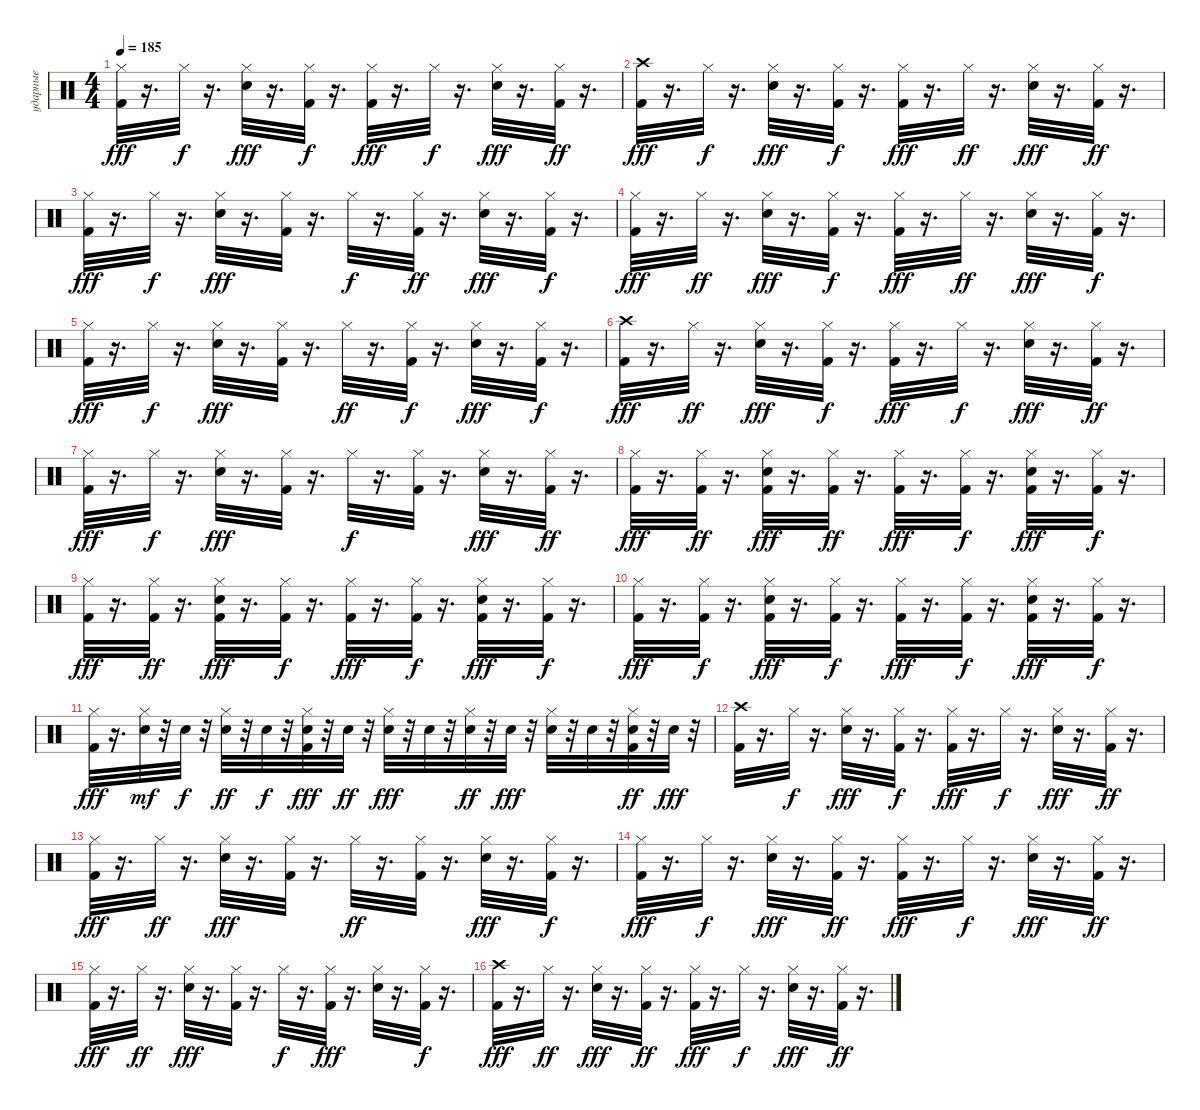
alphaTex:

\track ("ударные" "ударные") {instrument percussion}
\staff {score}
\articulation defaults
\ts (4 4)
\tempo 185
\clef neutral
\ks c
("Hi-Hat (closed)" "Kick (hit) 2").32{dy fff} r.16{d} "Hi-Hat (closed)".32{dy f} r.16{d} ("Hi-Hat (closed)" "Electric Snare (hit)").32{dy fff} r.16{d} ("Hi-Hat (closed)" "Kick (hit) 2").32{dy f} r.16{d} ("Hi-Hat (closed)" "Kick (hit) 2").32{dy fff} r.16{d} "Hi-Hat (closed)".32{dy f} r.16{d} ("Hi-Hat (closed)" "Electric Snare (hit)").32{dy fff} r.16{d} ("Hi-Hat (closed)" "Kick (hit) 2").32{dy ff} r.16{d} |
("Crash high (hit)" "Kick (hit) 2").32{dy fff} r.16{d} "Hi-Hat (closed)".32{dy f} r.16{d} ("Hi-Hat (closed)" "Electric Snare (hit)").32{dy fff} r.16{d} ("Hi-Hat (closed)" "Kick (hit) 2").32{dy f} r.16{d} ("Hi-Hat (closed)" "Kick (hit) 2").32{dy fff} r.16{d} "Hi-Hat (closed)".32{dy ff} r.16{d} ("Hi-Hat (closed)" "Electric Snare (hit)").32{dy fff} r.16{d} ("Hi-Hat (closed)" "Kick (hit) 2").32{dy ff} r.16{d} |
("Hi-Hat (closed)" "Kick (hit) 2").32{dy fff} r.16{d} "Hi-Hat (closed)".32{dy f} r.16{d} ("Hi-Hat (closed)" "Electric Snare (hit)").32{dy fff} r.16{d} ("Hi-Hat (closed)" "Kick (hit) 2").32 r.16{d} "Hi-Hat (closed)".32{dy f} r.16{d} ("Kick (hit) 2" "Hi-Hat (closed)").32{dy ff} r.16{d} ("Hi-Hat (closed)" "Electric Snare (hit)").32{dy fff} r.16{d} ("Hi-Hat (closed)" "Kick (hit) 2").32{dy f} r.16{d} |
("Hi-Hat (closed)" "Kick (hit) 2").32{dy fff} r.16{d} "Hi-Hat (closed)".32{dy ff} r.16{d} ("Hi-Hat (closed)" "Electric Snare (hit)").32{dy fff} r.16{d} ("Hi-Hat (closed)" "Kick (hit) 2").32{dy f} r.16{d} ("Hi-Hat (closed)" "Kick (hit) 2").32{dy fff} r.16{d} "Hi-Hat (closed)".32{dy ff} r.16{d} ("Hi-Hat (closed)" "Electric Snare (hit)").32{dy fff} r.16{d} ("Hi-Hat (closed)" "Kick (hit) 2").32{dy f} r.16{d} |
("Hi-Hat (closed)" "Kick (hit) 2").32{dy fff} r.16{d} "Hi-Hat (closed)".32{dy f} r.16{d} ("Hi-Hat (closed)" "Electric Snare (hit)").32{dy fff} r.16{d} ("Hi-Hat (closed)" "Kick (hit) 2").32 r.16{d} "Hi-Hat (closed)".32{dy ff} r.16{d} ("Kick (hit) 2" "Hi-Hat (closed)").32{dy f} r.16{d} ("Hi-Hat (closed)" "Electric Snare (hit)").32{dy fff} r.16{d} ("Hi-Hat (closed)" "Kick (hit) 2").32{dy f} r.16{d} |
("Crash high (hit)" "Kick (hit) 2").32{dy fff} r.16{d} "Hi-Hat (closed)".32{dy ff} r.16{d} ("Hi-Hat (closed)" "Electric Snare (hit)").32{dy fff} r.16{d} ("Hi-Hat (closed)" "Kick (hit) 2").32{dy f} r.16{d} ("Hi-Hat (closed)" "Kick (hit) 2").32{dy fff} r.16{d} "Hi-Hat (closed)".32{dy f} r.16{d} ("Hi-Hat (closed)" "Electric Snare (hit)").32{dy fff} r.16{d} ("Hi-Hat (closed)" "Kick (hit) 2").32{dy ff} r.16{d} |
("Hi-Hat (closed)" "Kick (hit) 2").32{dy fff} r.16{d} "Hi-Hat (closed)".32{dy f} r.16{d} ("Hi-Hat (closed)" "Electric Snare (hit)").32{dy fff} r.16{d} ("Hi-Hat (closed)" "Kick (hit) 2").32 r.16{d} "Hi-Hat (closed)".32{dy f} r.16{d} ("Kick (hit) 2" "Hi-Hat (closed)").32 r.16{d} ("Hi-Hat (closed)" "Electric Snare (hit)").32{dy fff} r.16{d} ("Hi-Hat (closed)" "Kick (hit) 2").32{dy ff} r.16{d} |
("Hi-Hat (closed)" "Kick (hit) 2").32{dy fff} r.16{d} ("Kick (hit) 2" "Hi-Hat (closed)").32{dy ff} r.16{d} ("Kick (hit) 2" "Hi-Hat (closed)" "Electric Snare (hit)").32{dy fff} r.16{d} ("Kick (hit) 2" "Hi-Hat (closed)").32{dy ff} r.16{d} ("Hi-Hat (closed)" "Kick (hit) 2").32{dy fff} r.16{d} ("Kick (hit) 2" "Hi-Hat (closed)").32{dy f} r.16{d} ("Kick (hit) 2" "Hi-Hat (closed)" "Electric Snare (hit)").32{dy fff} r.16{d} ("Hi-Hat (closed)" "Kick (hit) 2").32{dy f} r.16{d} |
("Hi-Hat (closed)" "Kick (hit) 2").32{dy fff} r.16{d} ("Kick (hit) 2" "Hi-Hat (closed)").32{dy ff} r.16{d} ("Kick (hit) 2" "Hi-Hat (closed)" "Electric Snare (hit)").32{dy fff} r.16{d} ("Kick (hit) 2" "Hi-Hat (closed)").32{dy f} r.16{d} ("Hi-Hat (closed)" "Kick (hit) 2").32{dy fff} r.16{d} ("Kick (hit) 2" "Hi-Hat (closed)").32{dy f} r.16{d} ("Kick (hit) 2" "Hi-Hat (closed)" "Electric Snare (hit)").32{dy fff} r.16{d} ("Hi-Hat (closed)" "Kick (hit) 2").32{dy f} r.16{d} |
("Hi-Hat (closed)" "Kick (hit) 2").32{dy fff} r.16{d} ("Kick (hit) 2" "Hi-Hat (closed)").32{dy f} r.16{d} ("Kick (hit) 2" "Hi-Hat (closed)" "Electric Snare (hit)").32{dy fff} r.16{d} ("Kick (hit) 2" "Hi-Hat (closed)").32{dy f} r.16{d} ("Hi-Hat (closed)" "Kick (hit) 2").32{dy fff} r.16{d} ("Kick (hit) 2" "Hi-Hat (closed)").32{dy f} r.16{d} ("Kick (hit) 2" "Hi-Hat (closed)" "Electric Snare (hit)").32{dy fff} r.16{d} ("Hi-Hat (closed)" "Kick (hit) 2").32{dy f} r.16{d} |
("Hi-Hat (closed)" "Kick (hit) 2").32{dy fff} r.16{d} ("Snare (hit) 2" "Hi-Hat (closed)").32{dy mf} r.32 "Snare (hit) 2".32{dy f} r.32 ("Snare (hit) 2" "Hi-Hat (closed)").32{dy ff} r.32 "Snare (hit) 2".32{dy f} r.32 ("Snare (hit) 2" "Hi-Hat (closed)" "Kick (hit) 2").32{dy fff} r.32 "Snare (hit) 2".32{dy ff} r.32 ("Snare (hit) 2" "Hi-Hat (closed)").32{dy fff} r.32 "Snare (hit) 2".32 r.32 ("Snare (hit) 2" "Hi-Hat (closed)").32{dy ff} r.32 "Snare (hit) 2".32{dy fff} r.32 ("Snare (hit) 2" "Hi-Hat (closed)").32 r.32 "Snare (hit) 2".32 r.32 ("Snare (hit) 2" "Hi-Hat (closed)" "Kick (hit) 2").32{dy ff} r.32 "Snare (hit) 2".32{dy fff} r.32 |
("Crash high (hit)" "Kick (hit) 2").32 r.16{d} "Hi-Hat (closed)".32{dy f} r.16{d} ("Hi-Hat (closed)" "Electric Snare (hit)").32{dy fff} r.16{d} ("Hi-Hat (closed)" "Kick (hit) 2").32{dy f} r.16{d} ("Hi-Hat (closed)" "Kick (hit) 2").32{dy fff} r.16{d} "Hi-Hat (closed)".32{dy f} r.16{d} ("Hi-Hat (closed)" "Electric Snare (hit)").32{dy fff} r.16{d} ("Hi-Hat (closed)" "Kick (hit) 2").32{dy ff} r.16{d} |
("Hi-Hat (closed)" "Kick (hit) 2").32{dy fff} r.16{d} "Hi-Hat (closed)".32{dy ff} r.16{d} ("Hi-Hat (closed)" "Electric Snare (hit)").32{dy fff} r.16{d} ("Hi-Hat (closed)" "Kick (hit) 2").32 r.16{d} "Hi-Hat (closed)".32{dy ff} r.16{d} ("Kick (hit) 2" "Hi-Hat (closed)").32 r.16{d} ("Hi-Hat (closed)" "Electric Snare (hit)").32{dy fff} r.16{d} ("Hi-Hat (closed)" "Kick (hit) 2").32{dy f} r.16{d} |
("Hi-Hat (closed)" "Kick (hit) 2").32{dy fff} r.16{d} "Hi-Hat (closed)".32{dy f} r.16{d} ("Hi-Hat (closed)" "Electric Snare (hit)").32{dy fff} r.16{d} ("Hi-Hat (closed)" "Kick (hit) 2").32{dy ff} r.16{d} ("Hi-Hat (closed)" "Kick (hit) 2").32{dy fff} r.16{d} "Hi-Hat (closed)".32{dy f} r.16{d} ("Hi-Hat (closed)" "Electric Snare (hit)").32{dy fff} r.16{d} ("Hi-Hat (closed)" "Kick (hit) 2").32{dy ff} r.16{d} |
("Hi-Hat (closed)" "Kick (hit) 2").32{dy fff} r.16{d} "Hi-Hat (closed)".32{dy ff} r.16{d} ("Hi-Hat (closed)" "Electric Snare (hit)").32{dy fff} r.16{d} ("Hi-Hat (closed)" "Kick (hit) 2").32 r.16{d} "Hi-Hat (closed)".32{dy f} r.16{d} ("Kick (hit) 2" "Hi-Hat (closed)").32{dy fff} r.16{d} ("Hi-Hat (closed)" "Electric Snare (hit)").32 r.16{d} ("Hi-Hat (closed)" "Kick (hit) 2").32{dy f} r.16{d} |
("Crash high (hit)" "Kick (hit) 2").32{dy fff} r.16{d} "Hi-Hat (closed)".32{dy ff} r.16{d} ("Hi-Hat (closed)" "Electric Snare (hit)").32{dy fff} r.16{d} ("Hi-Hat (closed)" "Kick (hit) 2").32{dy ff} r.16{d} ("Hi-Hat (closed)" "Kick (hit) 2").32{dy fff} r.16{d} "Hi-Hat (closed)".32{dy f} r.16{d} ("Hi-Hat (closed)" "Electric Snare (hit)").32{dy fff} r.16{d} ("Hi-Hat (closed)" "Kick (hit) 2").32{dy ff} r.16{d}
